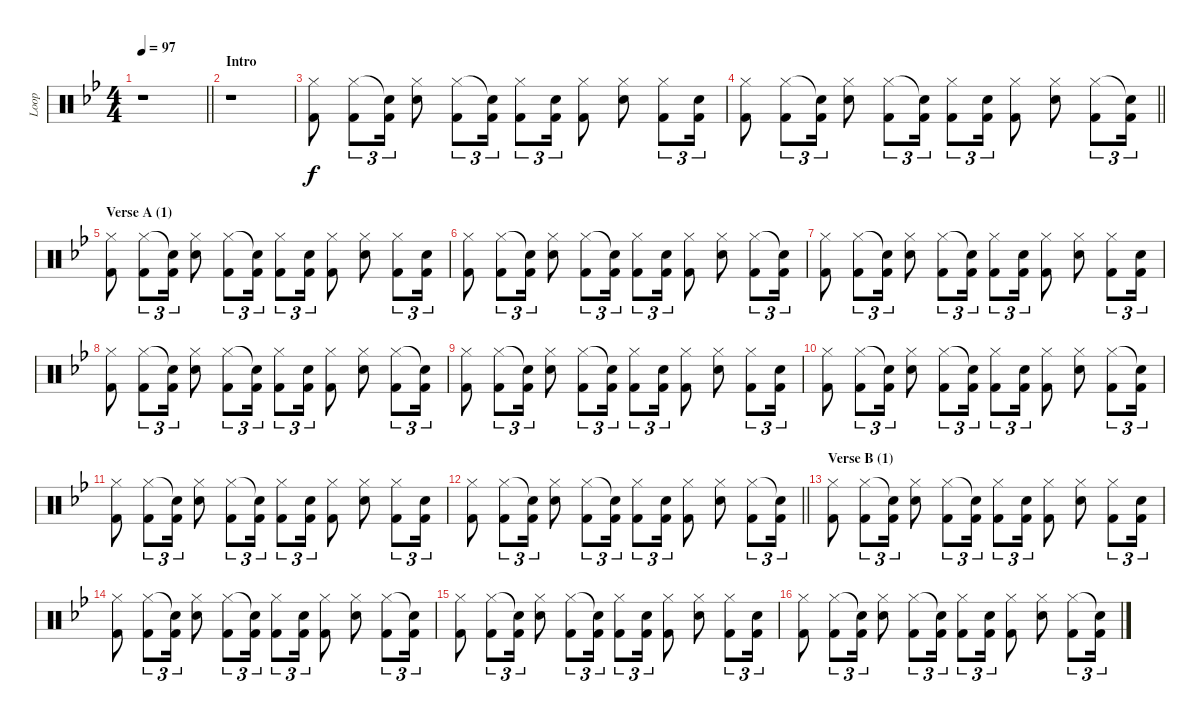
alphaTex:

\track ("Loop" "Loop") {instrument percussion}
\staff {score}
\articulation defaults
\ts (4 4)
\tempo 97
\clef neutral
\barLineRight lightlight
\ks bb
r.1{dy f} |
\section ("" "Intro")
r.1 |
("Hi-Hat (closed)" "Kick (hit) 2").8 ("Hi-Hat (closed)" "Kick (hit) 2").8{tu (3 2)} ("Snare (hit)"{t} "Kick (hit) 2").16{tu (3 2)} ("Hi-Hat (closed)" "Electric Snare (hit)").8 ("Hi-Hat (closed)" "Kick (hit) 2").8{tu (3 2)} ("Snare (hit)"{t} "Kick (hit) 2").16{tu (3 2)} ("Hi-Hat (closed)" "Kick (hit) 2").8{tu (3 2)} ("Electric Snare (hit)" "Kick (hit) 2").16{tu (3 2)} ("Hi-Hat (closed)" "Kick (hit) 2").8 ("Hi-Hat (closed)" "Electric Snare (hit)").8 ("Hi-Hat (closed)" "Kick (hit) 2").8{tu (3 2)} ("Electric Snare (hit)" "Kick (hit) 2").16{tu (3 2)} |
\barLineRight lightlight
("Hi-Hat (closed)" "Kick (hit) 2").8 ("Hi-Hat (closed)" "Kick (hit) 2").8{tu (3 2)} ("Snare (hit)"{t} "Kick (hit) 2").16{tu (3 2)} ("Hi-Hat (closed)" "Electric Snare (hit)").8 ("Hi-Hat (closed)" "Kick (hit) 2").8{tu (3 2)} ("Snare (hit)"{t} "Kick (hit) 2").16{tu (3 2)} ("Hi-Hat (closed)" "Kick (hit) 2").8{tu (3 2)} ("Electric Snare (hit)" "Kick (hit) 2").16{tu (3 2)} ("Hi-Hat (closed)" "Kick (hit) 2").8 ("Hi-Hat (closed)" "Electric Snare (hit)").8 ("Hi-Hat (closed)" "Kick (hit) 2").8{tu (3 2)} ("Snare (hit)"{t} "Kick (hit) 2").16{tu (3 2)} |
\section ("" "Verse A (1)")
("Hi-Hat (closed)" "Kick (hit) 2").8 ("Hi-Hat (closed)" "Kick (hit) 2").8{tu (3 2)} ("Snare (hit)"{t} "Kick (hit) 2").16{tu (3 2)} ("Hi-Hat (closed)" "Electric Snare (hit)").8 ("Hi-Hat (closed)" "Kick (hit) 2").8{tu (3 2)} ("Snare (hit)"{t} "Kick (hit) 2").16{tu (3 2)} ("Hi-Hat (closed)" "Kick (hit) 2").8{tu (3 2)} ("Electric Snare (hit)" "Kick (hit) 2").16{tu (3 2)} ("Hi-Hat (closed)" "Kick (hit) 2").8 ("Hi-Hat (closed)" "Electric Snare (hit)").8 ("Hi-Hat (closed)" "Kick (hit) 2").8{tu (3 2)} ("Electric Snare (hit)" "Kick (hit) 2").16{tu (3 2)} |
("Hi-Hat (closed)" "Kick (hit) 2").8 ("Hi-Hat (closed)" "Kick (hit) 2").8{tu (3 2)} ("Snare (hit)"{t} "Kick (hit) 2").16{tu (3 2)} ("Hi-Hat (closed)" "Electric Snare (hit)").8 ("Hi-Hat (closed)" "Kick (hit) 2").8{tu (3 2)} ("Snare (hit)"{t} "Kick (hit) 2").16{tu (3 2)} ("Hi-Hat (closed)" "Kick (hit) 2").8{tu (3 2)} ("Electric Snare (hit)" "Kick (hit) 2").16{tu (3 2)} ("Hi-Hat (closed)" "Kick (hit) 2").8 ("Hi-Hat (closed)" "Electric Snare (hit)").8 ("Hi-Hat (closed)" "Kick (hit) 2").8{tu (3 2)} ("Snare (hit)"{t} "Kick (hit) 2").16{tu (3 2)} |
("Hi-Hat (closed)" "Kick (hit) 2").8 ("Hi-Hat (closed)" "Kick (hit) 2").8{tu (3 2)} ("Snare (hit)"{t} "Kick (hit) 2").16{tu (3 2)} ("Hi-Hat (closed)" "Electric Snare (hit)").8 ("Hi-Hat (closed)" "Kick (hit) 2").8{tu (3 2)} ("Snare (hit)"{t} "Kick (hit) 2").16{tu (3 2)} ("Hi-Hat (closed)" "Kick (hit) 2").8{tu (3 2)} ("Electric Snare (hit)" "Kick (hit) 2").16{tu (3 2)} ("Hi-Hat (closed)" "Kick (hit) 2").8 ("Hi-Hat (closed)" "Electric Snare (hit)").8 ("Hi-Hat (closed)" "Kick (hit) 2").8{tu (3 2)} ("Electric Snare (hit)" "Kick (hit) 2").16{tu (3 2)} |
("Hi-Hat (closed)" "Kick (hit) 2").8 ("Hi-Hat (closed)" "Kick (hit) 2").8{tu (3 2)} ("Snare (hit)"{t} "Kick (hit) 2").16{tu (3 2)} ("Hi-Hat (closed)" "Electric Snare (hit)").8 ("Hi-Hat (closed)" "Kick (hit) 2").8{tu (3 2)} ("Snare (hit)"{t} "Kick (hit) 2").16{tu (3 2)} ("Hi-Hat (closed)" "Kick (hit) 2").8{tu (3 2)} ("Electric Snare (hit)" "Kick (hit) 2").16{tu (3 2)} ("Hi-Hat (closed)" "Kick (hit) 2").8 ("Hi-Hat (closed)" "Electric Snare (hit)").8 ("Hi-Hat (closed)" "Kick (hit) 2").8{tu (3 2)} ("Snare (hit)"{t} "Kick (hit) 2").16{tu (3 2)} |
("Hi-Hat (closed)" "Kick (hit) 2").8 ("Hi-Hat (closed)" "Kick (hit) 2").8{tu (3 2)} ("Snare (hit)"{t} "Kick (hit) 2").16{tu (3 2)} ("Hi-Hat (closed)" "Electric Snare (hit)").8 ("Hi-Hat (closed)" "Kick (hit) 2").8{tu (3 2)} ("Snare (hit)"{t} "Kick (hit) 2").16{tu (3 2)} ("Hi-Hat (closed)" "Kick (hit) 2").8{tu (3 2)} ("Electric Snare (hit)" "Kick (hit) 2").16{tu (3 2)} ("Hi-Hat (closed)" "Kick (hit) 2").8 ("Hi-Hat (closed)" "Electric Snare (hit)").8 ("Hi-Hat (closed)" "Kick (hit) 2").8{tu (3 2)} ("Electric Snare (hit)" "Kick (hit) 2").16{tu (3 2)} |
("Hi-Hat (closed)" "Kick (hit) 2").8 ("Hi-Hat (closed)" "Kick (hit) 2").8{tu (3 2)} ("Snare (hit)"{t} "Kick (hit) 2").16{tu (3 2)} ("Hi-Hat (closed)" "Electric Snare (hit)").8 ("Hi-Hat (closed)" "Kick (hit) 2").8{tu (3 2)} ("Snare (hit)"{t} "Kick (hit) 2").16{tu (3 2)} ("Hi-Hat (closed)" "Kick (hit) 2").8{tu (3 2)} ("Electric Snare (hit)" "Kick (hit) 2").16{tu (3 2)} ("Hi-Hat (closed)" "Kick (hit) 2").8 ("Hi-Hat (closed)" "Electric Snare (hit)").8 ("Hi-Hat (closed)" "Kick (hit) 2").8{tu (3 2)} ("Snare (hit)"{t} "Kick (hit) 2").16{tu (3 2)} |
("Hi-Hat (closed)" "Kick (hit) 2").8 ("Hi-Hat (closed)" "Kick (hit) 2").8{tu (3 2)} ("Snare (hit)"{t} "Kick (hit) 2").16{tu (3 2)} ("Hi-Hat (closed)" "Electric Snare (hit)").8 ("Hi-Hat (closed)" "Kick (hit) 2").8{tu (3 2)} ("Snare (hit)"{t} "Kick (hit) 2").16{tu (3 2)} ("Hi-Hat (closed)" "Kick (hit) 2").8{tu (3 2)} ("Electric Snare (hit)" "Kick (hit) 2").16{tu (3 2)} ("Hi-Hat (closed)" "Kick (hit) 2").8 ("Hi-Hat (closed)" "Electric Snare (hit)").8 ("Hi-Hat (closed)" "Kick (hit) 2").8{tu (3 2)} ("Electric Snare (hit)" "Kick (hit) 2").16{tu (3 2)} |
\barLineRight lightlight
("Hi-Hat (closed)" "Kick (hit) 2").8 ("Hi-Hat (closed)" "Kick (hit) 2").8{tu (3 2)} ("Snare (hit)"{t} "Kick (hit) 2").16{tu (3 2)} ("Hi-Hat (closed)" "Electric Snare (hit)").8 ("Hi-Hat (closed)" "Kick (hit) 2").8{tu (3 2)} ("Snare (hit)"{t} "Kick (hit) 2").16{tu (3 2)} ("Hi-Hat (closed)" "Kick (hit) 2").8{tu (3 2)} ("Electric Snare (hit)" "Kick (hit) 2").16{tu (3 2)} ("Hi-Hat (closed)" "Kick (hit) 2").8 ("Hi-Hat (closed)" "Electric Snare (hit)").8 ("Hi-Hat (closed)" "Kick (hit) 2").8{tu (3 2)} ("Snare (hit)"{t} "Kick (hit) 2").16{tu (3 2)} |
\section ("" "Verse B (1)")
("Hi-Hat (closed)" "Kick (hit) 2").8 ("Hi-Hat (closed)" "Kick (hit) 2").8{tu (3 2)} ("Snare (hit)"{t} "Kick (hit) 2").16{tu (3 2)} ("Hi-Hat (closed)" "Electric Snare (hit)").8 ("Hi-Hat (closed)" "Kick (hit) 2").8{tu (3 2)} ("Snare (hit)"{t} "Kick (hit) 2").16{tu (3 2)} ("Hi-Hat (closed)" "Kick (hit) 2").8{tu (3 2)} ("Electric Snare (hit)" "Kick (hit) 2").16{tu (3 2)} ("Hi-Hat (closed)" "Kick (hit) 2").8 ("Hi-Hat (closed)" "Electric Snare (hit)").8 ("Hi-Hat (closed)" "Kick (hit) 2").8{tu (3 2)} ("Electric Snare (hit)" "Kick (hit) 2").16{tu (3 2)} |
("Hi-Hat (closed)" "Kick (hit) 2").8 ("Hi-Hat (closed)" "Kick (hit) 2").8{tu (3 2)} ("Snare (hit)"{t} "Kick (hit) 2").16{tu (3 2)} ("Hi-Hat (closed)" "Electric Snare (hit)").8 ("Hi-Hat (closed)" "Kick (hit) 2").8{tu (3 2)} ("Snare (hit)"{t} "Kick (hit) 2").16{tu (3 2)} ("Hi-Hat (closed)" "Kick (hit) 2").8{tu (3 2)} ("Electric Snare (hit)" "Kick (hit) 2").16{tu (3 2)} ("Hi-Hat (closed)" "Kick (hit) 2").8 ("Hi-Hat (closed)" "Electric Snare (hit)").8 ("Hi-Hat (closed)" "Kick (hit) 2").8{tu (3 2)} ("Snare (hit)"{t} "Kick (hit) 2").16{tu (3 2)} |
("Hi-Hat (closed)" "Kick (hit) 2").8 ("Hi-Hat (closed)" "Kick (hit) 2").8{tu (3 2)} ("Snare (hit)"{t} "Kick (hit) 2").16{tu (3 2)} ("Hi-Hat (closed)" "Electric Snare (hit)").8 ("Hi-Hat (closed)" "Kick (hit) 2").8{tu (3 2)} ("Snare (hit)"{t} "Kick (hit) 2").16{tu (3 2)} ("Hi-Hat (closed)" "Kick (hit) 2").8{tu (3 2)} ("Electric Snare (hit)" "Kick (hit) 2").16{tu (3 2)} ("Hi-Hat (closed)" "Kick (hit) 2").8 ("Hi-Hat (closed)" "Electric Snare (hit)").8 ("Hi-Hat (closed)" "Kick (hit) 2").8{tu (3 2)} ("Electric Snare (hit)" "Kick (hit) 2").16{tu (3 2)} |
("Hi-Hat (closed)" "Kick (hit) 2").8 ("Hi-Hat (closed)" "Kick (hit) 2").8{tu (3 2)} ("Snare (hit)"{t} "Kick (hit) 2").16{tu (3 2)} ("Hi-Hat (closed)" "Electric Snare (hit)").8 ("Hi-Hat (closed)" "Kick (hit) 2").8{tu (3 2)} ("Snare (hit)"{t} "Kick (hit) 2").16{tu (3 2)} ("Hi-Hat (closed)" "Kick (hit) 2").8{tu (3 2)} ("Electric Snare (hit)" "Kick (hit) 2").16{tu (3 2)} ("Hi-Hat (closed)" "Kick (hit) 2").8 ("Hi-Hat (closed)" "Electric Snare (hit)").8 ("Hi-Hat (closed)" "Kick (hit) 2").8{tu (3 2)} ("Snare (hit)"{t} "Kick (hit) 2").16{tu (3 2)}
